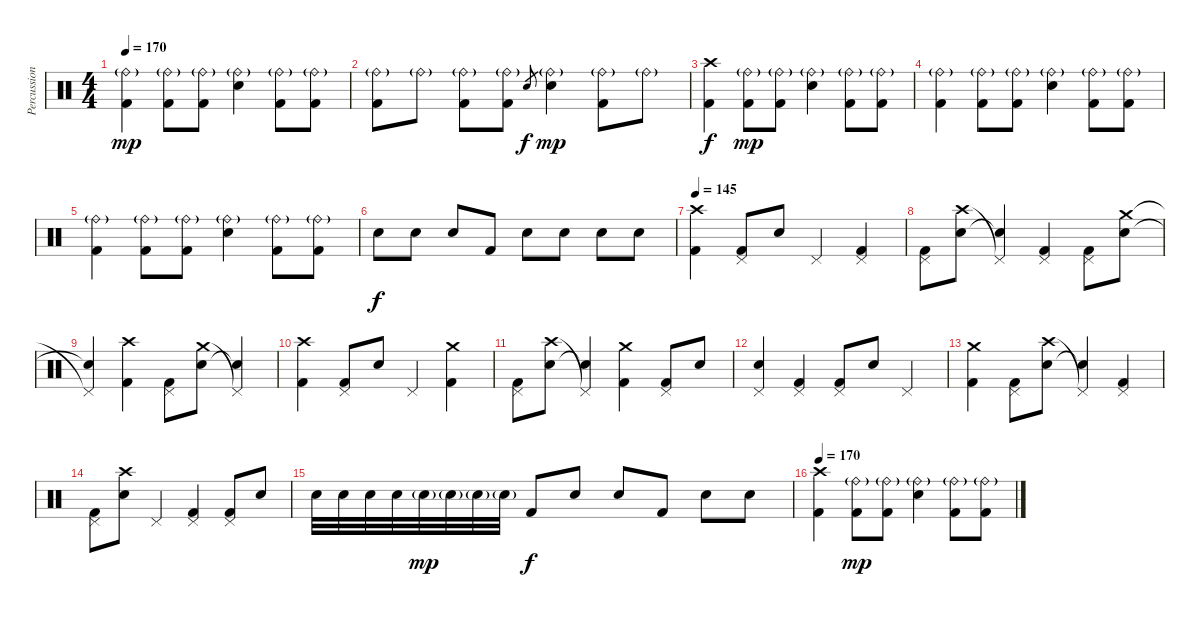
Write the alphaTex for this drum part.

\track ("Percussion" "Percussion") {instrument percussion}
\staff {score}
\articulation defaults
\ts (4 4)
\tempo 170
\clef neutral
\ks c
("Ride (bell)"{g} "Kick (hit) 2").4{dy mp} ("Ride (bell)"{g} "Kick (hit) 2").8 ("Ride (bell)"{g} "Kick (hit) 2").8 ("Ride (bell)"{g} "Electric Snare (hit)").4 ("Ride (bell)"{g} "Kick (hit) 2").8 ("Ride (bell)"{g} "Kick (hit) 2").8 |
("Ride (bell)"{g} "Kick (hit) 2").8 "Ride (bell)"{g}.8 ("Ride (bell)"{g} "Kick (hit) 2").8 ("Ride (bell)"{g} "Kick (hit) 2").8 "Electric Snare (hit)".8{gr dy f} ("Ride (bell)"{g} "Electric Snare (hit)").4{dy mp} ("Ride (bell)"{g} "Kick (hit) 2").8 "Ride (bell)"{g}.8 |
("Crash high (hit)" "Kick (hit) 2").4{dy f} ("Ride (bell)"{g} "Kick (hit) 2").8{dy mp} ("Ride (bell)"{g} "Kick (hit) 2").8 ("Ride (bell)"{g} "Electric Snare (hit)").4 ("Ride (bell)"{g} "Kick (hit) 2").8 ("Ride (bell)"{g} "Kick (hit) 2").8 |
("Ride (bell)"{g} "Kick (hit) 2").4 ("Ride (bell)"{g} "Kick (hit) 2").8 ("Ride (bell)"{g} "Kick (hit) 2").8 ("Ride (bell)"{g} "Electric Snare (hit)").4 ("Ride (bell)"{g} "Kick (hit) 2").8 ("Ride (bell)"{g} "Kick (hit) 2").8 |
("Ride (bell)"{g} "Kick (hit) 2").4 ("Ride (bell)"{g} "Kick (hit) 2").8 ("Ride (bell)"{g} "Kick (hit) 2").8 ("Ride (bell)"{g} "Electric Snare (hit)").4 ("Ride (bell)"{g} "Kick (hit) 2").8 ("Ride (bell)"{g} "Kick (hit) 2").8 |
"Electric Snare (hit)".8{dy f} "Electric Snare (hit)".8 "Electric Snare (hit)".8 "Kick (hit) 2".8 "Electric Snare (hit)".8 "Electric Snare (hit)".8 "Electric Snare (hit)".8 "Electric Snare (hit)".8 |
\tempo 145
("Crash high (hit)" "Kick (hit) 2").4 ("Pedal Hi-Hat (hit)" "Kick (hit) 2").8 "Electric Snare (hit)".8 "Pedal Hi-Hat (hit)".4 ("Pedal Hi-Hat (hit)" "Kick (hit) 2").4 |
("Pedal Hi-Hat (hit)" "Kick (hit) 2").8 ("Crash high (hit)" "Electric Snare (hit)").8 ("Pedal Hi-Hat (hit)"{t} "Snare (hit)"{t}).4 ("Pedal Hi-Hat (hit)" "Kick (hit) 2").4 ("Pedal Hi-Hat (hit)" "Kick (hit) 2").8 ("Crash medium (hit)" "Electric Snare (hit)").8 |
("Pedal Hi-Hat (hit)"{t} "Snare (hit)"{t}).4 ("Crash high (hit)" "Kick (hit) 2").4 ("Pedal Hi-Hat (hit)" "Kick (hit) 2").8 ("Crash medium (hit)" "Electric Snare (hit)").8 ("Pedal Hi-Hat (hit)"{t} "Snare (hit)"{t}).4 |
("Crash high (hit)" "Kick (hit) 2").4 ("Pedal Hi-Hat (hit)" "Kick (hit) 2").8 "Electric Snare (hit)".8 "Pedal Hi-Hat (hit)".4 ("Crash medium (hit)" "Kick (hit) 2").4 |
("Pedal Hi-Hat (hit)" "Kick (hit) 2").8 ("Crash high (hit)" "Electric Snare (hit)").8 ("Pedal Hi-Hat (hit)"{t} "Snare (hit)"{t}).4 ("Crash medium (hit)" "Kick (hit) 2").4 ("Pedal Hi-Hat (hit)" "Kick (hit) 2").8 "Electric Snare (hit)".8 |
("Pedal Hi-Hat (hit)" "Electric Snare (hit)").4 ("Pedal Hi-Hat (hit)" "Kick (hit) 2").4 ("Pedal Hi-Hat (hit)" "Kick (hit) 2").8 "Electric Snare (hit)".8 "Pedal Hi-Hat (hit)".4 |
("Crash medium (hit)" "Kick (hit) 2").4 ("Pedal Hi-Hat (hit)" "Kick (hit) 2").8 ("Crash high (hit)" "Electric Snare (hit)").8 ("Pedal Hi-Hat (hit)"{t} "Snare (hit)"{t}).4 ("Pedal Hi-Hat (hit)" "Kick (hit) 2").4 |
("Pedal Hi-Hat (hit)" "Kick (hit) 2").8 ("Crash high (hit)" "Electric Snare (hit)").8 "Pedal Hi-Hat (hit)".4 ("Pedal Hi-Hat (hit)" "Kick (hit) 2").4 ("Pedal Hi-Hat (hit)" "Kick (hit) 2").8 "Electric Snare (hit)".8 |
"Electric Snare (hit)".32 "Electric Snare (hit)".32 "Electric Snare (hit)".32 "Electric Snare (hit)".32 "Electric Snare (hit)"{g}.32{dy mp} "Electric Snare (hit)"{g}.32 "Electric Snare (hit)"{g}.32 "Electric Snare (hit)"{g}.32 "Kick (hit) 2".8{dy f} "Electric Snare (hit)".8 "Electric Snare (hit)".8 "Kick (hit) 2".8 "Electric Snare (hit)".8 "Electric Snare (hit)".8 |
\tempo 170
("Crash high (hit)" "Kick (hit) 2").4 ("Ride (bell)"{g} "Kick (hit) 2").8{dy mp} ("Ride (bell)"{g} "Kick (hit) 2").8 ("Ride (bell)"{g} "Electric Snare (hit)").4 ("Ride (bell)"{g} "Kick (hit) 2").8 ("Ride (bell)"{g} "Kick (hit) 2").8
